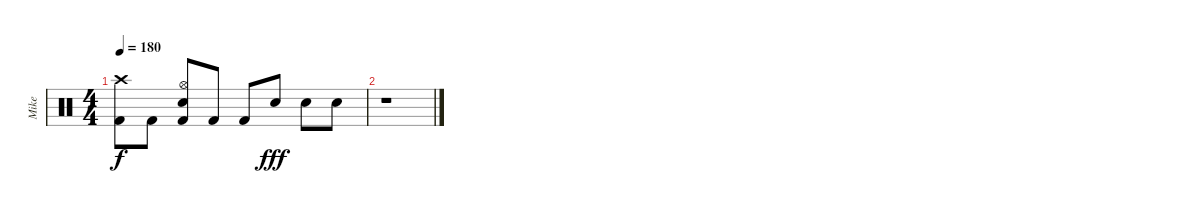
\track ("Mike" "Mike") {instrument percussion}
\staff {score}
\articulation defaults
\ts (4 4)
\tempo 180
\clef neutral
\ks c
("Crash high (hit)" "Kick (hit) 2").8{dy f volume 1} "Kick (hit) 2".8 ("Hi-Hat (open)" "Snare (hit) 2" "Kick (hit) 2").8 "Kick (hit) 2".8 "Kick (hit) 2".8 "Snare (hit) 2".8{dy fff volume 0} "Snare (hit) 2".8 "Snare (hit) 2".8 |
r.1
